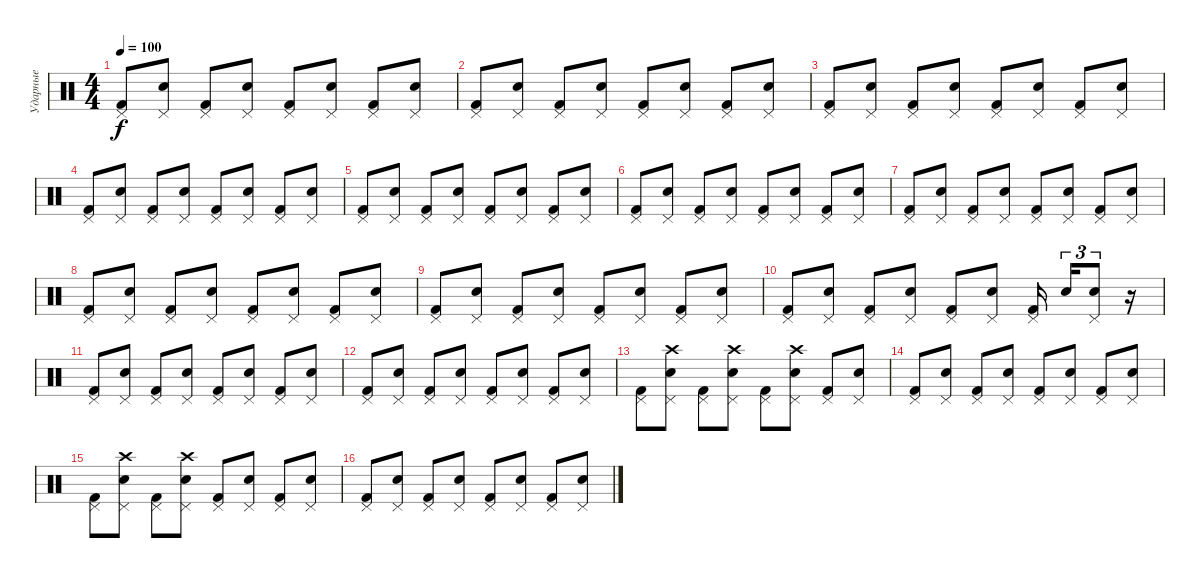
\track ("Ударные" "Ударные") {instrument percussion}
\staff {score}
\articulation defaults
\ts (4 4)
\tempo 100
\clef neutral
\ks c
("Pedal Hi-Hat (hit)" "Kick (hit) 2").8{dy f} ("Pedal Hi-Hat (hit)" "Electric Snare (hit)").8 ("Pedal Hi-Hat (hit)" "Kick (hit) 2").8 ("Pedal Hi-Hat (hit)" "Electric Snare (hit)").8 ("Pedal Hi-Hat (hit)" "Kick (hit) 2").8 ("Pedal Hi-Hat (hit)" "Electric Snare (hit)").8 ("Pedal Hi-Hat (hit)" "Kick (hit) 2").8 ("Pedal Hi-Hat (hit)" "Electric Snare (hit)").8 |
("Pedal Hi-Hat (hit)" "Kick (hit) 2").8 ("Pedal Hi-Hat (hit)" "Electric Snare (hit)").8 ("Pedal Hi-Hat (hit)" "Kick (hit) 2").8 ("Pedal Hi-Hat (hit)" "Electric Snare (hit)").8 ("Pedal Hi-Hat (hit)" "Kick (hit) 2").8 ("Pedal Hi-Hat (hit)" "Electric Snare (hit)").8 ("Pedal Hi-Hat (hit)" "Kick (hit) 2").8 ("Pedal Hi-Hat (hit)" "Electric Snare (hit)").8 |
("Pedal Hi-Hat (hit)" "Kick (hit) 2").8 ("Pedal Hi-Hat (hit)" "Electric Snare (hit)").8 ("Pedal Hi-Hat (hit)" "Kick (hit) 2").8 ("Pedal Hi-Hat (hit)" "Electric Snare (hit)").8 ("Pedal Hi-Hat (hit)" "Kick (hit) 2").8 ("Pedal Hi-Hat (hit)" "Electric Snare (hit)").8 ("Pedal Hi-Hat (hit)" "Kick (hit) 2").8 ("Pedal Hi-Hat (hit)" "Electric Snare (hit)").8 |
("Pedal Hi-Hat (hit)" "Kick (hit) 2").8 ("Pedal Hi-Hat (hit)" "Electric Snare (hit)").8 ("Pedal Hi-Hat (hit)" "Kick (hit) 2").8 ("Pedal Hi-Hat (hit)" "Electric Snare (hit)").8 ("Pedal Hi-Hat (hit)" "Kick (hit) 2").8 ("Pedal Hi-Hat (hit)" "Electric Snare (hit)").8 ("Pedal Hi-Hat (hit)" "Kick (hit) 2").8 ("Pedal Hi-Hat (hit)" "Electric Snare (hit)").8 |
("Pedal Hi-Hat (hit)" "Kick (hit) 2").8 ("Pedal Hi-Hat (hit)" "Electric Snare (hit)").8 ("Pedal Hi-Hat (hit)" "Kick (hit) 2").8 ("Pedal Hi-Hat (hit)" "Electric Snare (hit)").8 ("Pedal Hi-Hat (hit)" "Kick (hit) 2").8 ("Pedal Hi-Hat (hit)" "Electric Snare (hit)").8 ("Pedal Hi-Hat (hit)" "Kick (hit) 2").8 ("Pedal Hi-Hat (hit)" "Electric Snare (hit)").8 |
("Pedal Hi-Hat (hit)" "Kick (hit) 2").8 ("Pedal Hi-Hat (hit)" "Electric Snare (hit)").8 ("Pedal Hi-Hat (hit)" "Kick (hit) 2").8 ("Pedal Hi-Hat (hit)" "Electric Snare (hit)").8 ("Pedal Hi-Hat (hit)" "Kick (hit) 2").8 ("Pedal Hi-Hat (hit)" "Electric Snare (hit)").8 ("Pedal Hi-Hat (hit)" "Kick (hit) 2").8 ("Pedal Hi-Hat (hit)" "Electric Snare (hit)").8 |
("Pedal Hi-Hat (hit)" "Kick (hit) 2").8 ("Pedal Hi-Hat (hit)" "Electric Snare (hit)").8 ("Pedal Hi-Hat (hit)" "Kick (hit) 2").8 ("Pedal Hi-Hat (hit)" "Electric Snare (hit)").8 ("Pedal Hi-Hat (hit)" "Kick (hit) 2").8 ("Pedal Hi-Hat (hit)" "Electric Snare (hit)").8 ("Pedal Hi-Hat (hit)" "Kick (hit) 2").8 ("Pedal Hi-Hat (hit)" "Electric Snare (hit)").8 |
("Pedal Hi-Hat (hit)" "Kick (hit) 2").8 ("Pedal Hi-Hat (hit)" "Electric Snare (hit)").8 ("Pedal Hi-Hat (hit)" "Kick (hit) 2").8 ("Pedal Hi-Hat (hit)" "Electric Snare (hit)").8 ("Pedal Hi-Hat (hit)" "Kick (hit) 2").8 ("Pedal Hi-Hat (hit)" "Electric Snare (hit)").8 ("Pedal Hi-Hat (hit)" "Kick (hit) 2").8 ("Pedal Hi-Hat (hit)" "Electric Snare (hit)").8 |
("Pedal Hi-Hat (hit)" "Kick (hit) 2").8 ("Pedal Hi-Hat (hit)" "Electric Snare (hit)").8 ("Pedal Hi-Hat (hit)" "Kick (hit) 2").8 ("Pedal Hi-Hat (hit)" "Electric Snare (hit)").8 ("Pedal Hi-Hat (hit)" "Kick (hit) 2").8 ("Pedal Hi-Hat (hit)" "Electric Snare (hit)").8 ("Pedal Hi-Hat (hit)" "Kick (hit) 2").8 ("Pedal Hi-Hat (hit)" "Electric Snare (hit)").8 |
("Pedal Hi-Hat (hit)" "Kick (hit) 2").8 ("Pedal Hi-Hat (hit)" "Electric Snare (hit)").8 ("Pedal Hi-Hat (hit)" "Kick (hit) 2").8 ("Pedal Hi-Hat (hit)" "Electric Snare (hit)").8 ("Pedal Hi-Hat (hit)" "Kick (hit) 2").8 ("Pedal Hi-Hat (hit)" "Electric Snare (hit)").8 ("Pedal Hi-Hat (hit)" "Kick (hit) 2").16{beam splitsecondary} "Electric Snare (hit)".16{tu (3 2)} ("Pedal Hi-Hat (hit)" "Electric Snare (hit)").8{tu (3 2)} r.16 |
("Pedal Hi-Hat (hit)" "Kick (hit) 2").8 ("Pedal Hi-Hat (hit)" "Electric Snare (hit)").8 ("Pedal Hi-Hat (hit)" "Kick (hit) 2").8 ("Pedal Hi-Hat (hit)" "Electric Snare (hit)").8 ("Pedal Hi-Hat (hit)" "Kick (hit) 2").8 ("Pedal Hi-Hat (hit)" "Electric Snare (hit)").8 ("Pedal Hi-Hat (hit)" "Kick (hit) 2").8 ("Pedal Hi-Hat (hit)" "Electric Snare (hit)").8 |
("Pedal Hi-Hat (hit)" "Kick (hit) 2").8 ("Pedal Hi-Hat (hit)" "Electric Snare (hit)").8 ("Pedal Hi-Hat (hit)" "Kick (hit) 2").8 ("Pedal Hi-Hat (hit)" "Electric Snare (hit)").8 ("Pedal Hi-Hat (hit)" "Kick (hit) 2").8 ("Pedal Hi-Hat (hit)" "Electric Snare (hit)").8 ("Pedal Hi-Hat (hit)" "Kick (hit) 2").8 ("Pedal Hi-Hat (hit)" "Electric Snare (hit)").8 |
("Pedal Hi-Hat (hit)" "Kick (hit) 2").8 ("Pedal Hi-Hat (hit)" "Electric Snare (hit)" "Crash high (hit)").8 ("Pedal Hi-Hat (hit)" "Kick (hit) 2").8 ("Pedal Hi-Hat (hit)" "Electric Snare (hit)" "Crash high (hit)").8 ("Pedal Hi-Hat (hit)" "Kick (hit) 2").8 ("Pedal Hi-Hat (hit)" "Electric Snare (hit)" "Crash high (hit)").8 ("Pedal Hi-Hat (hit)" "Kick (hit) 2").8 ("Pedal Hi-Hat (hit)" "Electric Snare (hit)").8 |
("Pedal Hi-Hat (hit)" "Kick (hit) 2").8 ("Pedal Hi-Hat (hit)" "Electric Snare (hit)").8 ("Pedal Hi-Hat (hit)" "Kick (hit) 2").8 ("Pedal Hi-Hat (hit)" "Electric Snare (hit)").8 ("Pedal Hi-Hat (hit)" "Kick (hit) 2").8 ("Pedal Hi-Hat (hit)" "Electric Snare (hit)").8 ("Pedal Hi-Hat (hit)" "Kick (hit) 2").8 ("Pedal Hi-Hat (hit)" "Electric Snare (hit)").8 |
("Pedal Hi-Hat (hit)" "Kick (hit) 2").8 ("Pedal Hi-Hat (hit)" "Electric Snare (hit)" "Crash high (hit)").8 ("Pedal Hi-Hat (hit)" "Kick (hit) 2").8 ("Pedal Hi-Hat (hit)" "Electric Snare (hit)" "Crash high (hit)").8 ("Pedal Hi-Hat (hit)" "Kick (hit) 2").8 ("Pedal Hi-Hat (hit)" "Electric Snare (hit)").8 ("Pedal Hi-Hat (hit)" "Kick (hit) 2").8 ("Pedal Hi-Hat (hit)" "Electric Snare (hit)").8 |
("Pedal Hi-Hat (hit)" "Kick (hit) 2").8 ("Pedal Hi-Hat (hit)" "Electric Snare (hit)").8 ("Pedal Hi-Hat (hit)" "Kick (hit) 2").8 ("Pedal Hi-Hat (hit)" "Electric Snare (hit)").8 ("Pedal Hi-Hat (hit)" "Kick (hit) 2").8 ("Pedal Hi-Hat (hit)" "Electric Snare (hit)").8 ("Pedal Hi-Hat (hit)" "Kick (hit) 2").8 ("Pedal Hi-Hat (hit)" "Electric Snare (hit)").8
